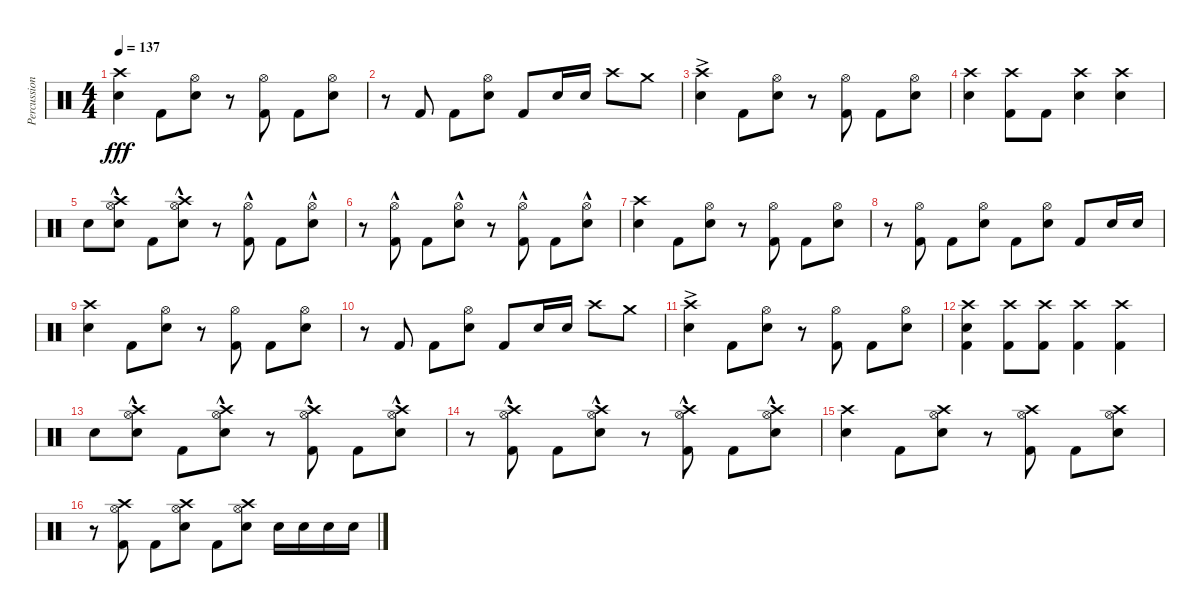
\track ("Percussion" "Percussion") {solo instrument percussion}
\staff {score}
\articulation defaults
\ts (4 4)
\tempo 137
\clef neutral
\ks c
("Crash high (hit)" "Electric Snare (hit)").4{dy fff} "Kick (hit) 2".8 ("Electric Snare (hit)" "Hi-Hat (open)").8 r.8 ("Kick (hit) 2" "Hi-Hat (open)").8 "Kick (hit) 2".8 ("Electric Snare (hit)" "Hi-Hat (open)").8 |
r.8 "Kick (hit) 2".8 "Kick (hit) 2".8 ("Electric Snare (hit)" "Hi-Hat (open)").8 "Kick (hit) 2".8 "Electric Snare (hit)".16 "Electric Snare (hit)".16 "Crash high (hit)".8 "Crash medium (hit)".8 |
("Crash high (hit)"{ac} "Electric Snare (hit)"{ac}).4 "Kick (hit) 2".8 ("Electric Snare (hit)" "Hi-Hat (open)").8 r.8 ("Kick (hit) 2" "Hi-Hat (open)").8 "Kick (hit) 2".8 ("Electric Snare (hit)" "Hi-Hat (open)").8 |
("Electric Snare (hit)" "Crash high (hit)").4 ("Kick (hit) 2" "Crash high (hit)").8 "Kick (hit) 2".8 ("Snare (hit) 2" "Crash high (hit)").4 ("Crash high (hit)" "Electric Snare (hit)").4 |
"Electric Snare (hit)".8 ("Hi-Hat (open)" "Crash high (hit)"{hac} "Electric Snare (hit)").8 "Kick (hit) 2".8 ("Hi-Hat (open)"{hac} "Electric Snare (hit)" "Crash high (hit)").8 r.8 ("Kick (hit) 2" "Hi-Hat (open)"{hac}).8 "Kick (hit) 2".8 ("Electric Snare (hit)" "Hi-Hat (open)"{hac}).8 |
r.8 ("Kick (hit) 2" "Hi-Hat (open)"{hac}).8 "Kick (hit) 2".8 ("Electric Snare (hit)" "Hi-Hat (open)"{hac}).8 r.8 ("Kick (hit) 2" "Hi-Hat (open)"{hac}).8 "Kick (hit) 2".8 ("Electric Snare (hit)" "Hi-Hat (open)"{hac}).8 |
("Crash high (hit)" "Electric Snare (hit)").4 "Kick (hit) 2".8 ("Electric Snare (hit)" "Hi-Hat (open)").8 r.8 ("Kick (hit) 2" "Hi-Hat (open)").8 "Kick (hit) 2".8 ("Electric Snare (hit)" "Hi-Hat (open)").8 |
r.8 ("Kick (hit) 2" "Hi-Hat (open)").8 "Kick (hit) 2".8 ("Electric Snare (hit)" "Hi-Hat (open)").8 "Kick (hit) 2".8 ("Electric Snare (hit)" "Hi-Hat (open)").8 "Kick (hit) 2".8 "Electric Snare (hit)".16 "Electric Snare (hit)".16 |
("Crash high (hit)" "Electric Snare (hit)").4 "Kick (hit) 2".8 ("Electric Snare (hit)" "Hi-Hat (open)").8 r.8 ("Kick (hit) 2" "Hi-Hat (open)").8 "Kick (hit) 2".8 ("Electric Snare (hit)" "Hi-Hat (open)").8 |
r.8 "Kick (hit) 2".8 "Kick (hit) 2".8 ("Electric Snare (hit)" "Hi-Hat (open)").8 "Kick (hit) 2".8 "Electric Snare (hit)".16 "Electric Snare (hit)".16 "Crash high (hit)".8 "Crash medium (hit)".8 |
("Crash high (hit)"{ac} "Electric Snare (hit)"{ac}).4 "Kick (hit) 2".8 ("Electric Snare (hit)" "Hi-Hat (open)").8 r.8 ("Kick (hit) 2" "Hi-Hat (open)").8 "Kick (hit) 2".8 ("Electric Snare (hit)" "Hi-Hat (open)").8 |
("Crash high (hit)" "Electric Snare (hit)" "Kick (hit) 2").4 ("Crash high (hit)" "Kick (hit) 2").8 ("Crash high (hit)" "Kick (hit) 2").8 ("Crash high (hit)" "Kick (hit) 2").4 ("Crash high (hit)" "Kick (hit) 2").4 |
"Electric Snare (hit)".8 ("Hi-Hat (open)" "Crash high (hit)"{hac} "Electric Snare (hit)").8 "Kick (hit) 2".8 ("Hi-Hat (open)"{hac} "Electric Snare (hit)" "Crash high (hit)").8 r.8 ("Kick (hit) 2" "Hi-Hat (open)"{hac} "Crash high (hit)").8 "Kick (hit) 2".8 ("Electric Snare (hit)" "Hi-Hat (open)"{hac} "Crash high (hit)").8 |
r.8 ("Kick (hit) 2" "Hi-Hat (open)"{hac} "Crash high (hit)").8 "Kick (hit) 2".8 ("Electric Snare (hit)" "Hi-Hat (open)"{hac} "Crash high (hit)").8 r.8 ("Kick (hit) 2" "Hi-Hat (open)"{hac} "Crash high (hit)").8 "Kick (hit) 2".8 ("Electric Snare (hit)" "Hi-Hat (open)"{hac} "Crash high (hit)").8 |
("Crash high (hit)" "Electric Snare (hit)").4 "Kick (hit) 2".8 ("Electric Snare (hit)" "Hi-Hat (open)" "Crash high (hit)").8 r.8 ("Kick (hit) 2" "Hi-Hat (open)" "Crash high (hit)").8 "Kick (hit) 2".8 ("Electric Snare (hit)" "Hi-Hat (open)" "Crash high (hit)").8 |
r.8 ("Kick (hit) 2" "Hi-Hat (open)" "Crash high (hit)").8 "Kick (hit) 2".8 ("Electric Snare (hit)" "Hi-Hat (open)" "Crash high (hit)").8 "Kick (hit) 2".8 ("Electric Snare (hit)" "Hi-Hat (open)" "Crash high (hit)").8 "Electric Snare (hit)".16 "Electric Snare (hit)".16 "Electric Snare (hit)".16 "Electric Snare (hit)".16
